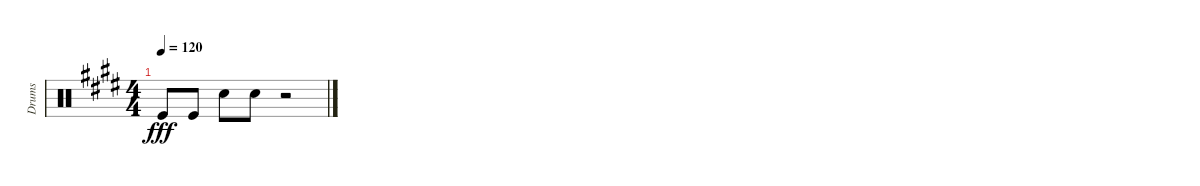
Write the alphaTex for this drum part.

\track ("Drums" "Drums") {instrument percussion}
\staff {score}
\articulation defaults
\ts (4 4)
\tempo 120
\clef neutral
\ks e "Kick (hit)".8{dy fff} "Kick (hit)".8 "Snare (hit) 2".8 "Snare (hit) 2".8
r.2
